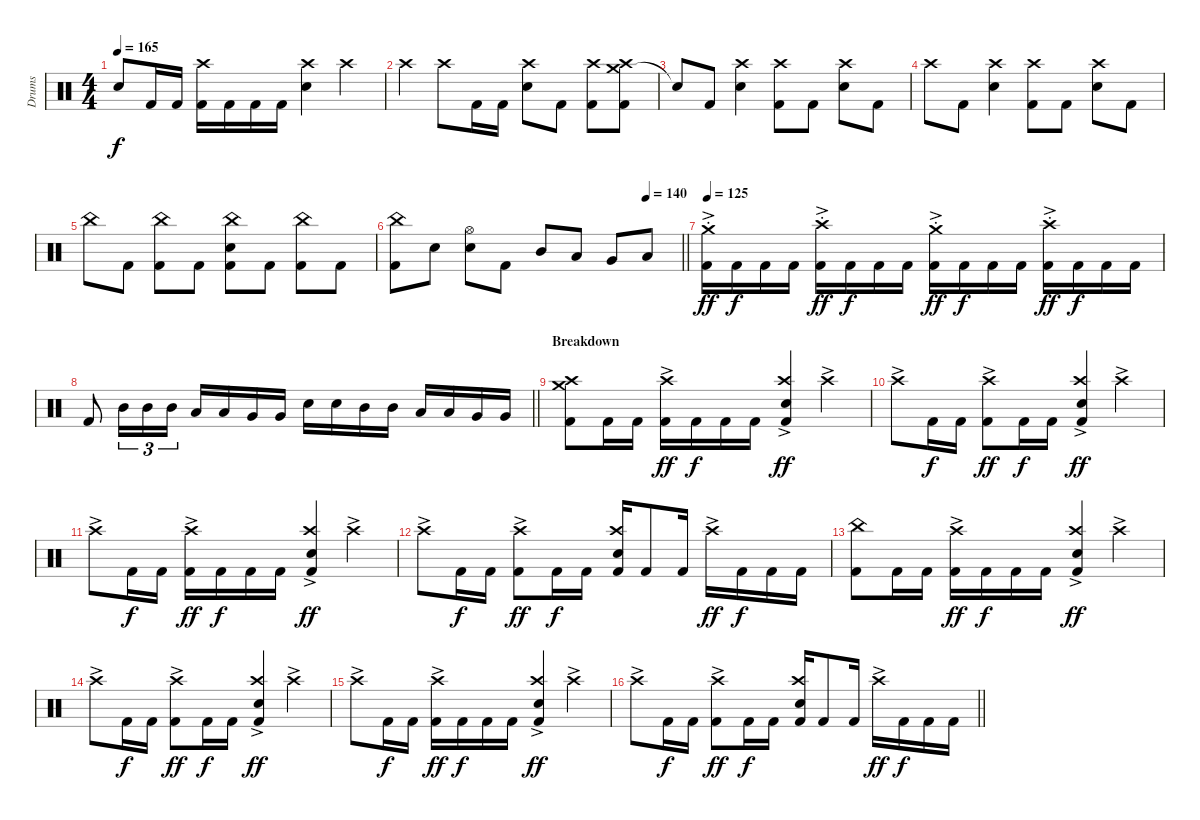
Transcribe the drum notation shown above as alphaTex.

\track ("Drums" "Drums") {instrument percussion}
\staff {score}
\articulation defaults
\ts (4 4)
\tempo 165
\clef neutral
\ks c "Snare (hit)"{t}.8{dy f} "Kick (hit) 2".16 "Kick (hit) 2".16
("Crash high (hit)" "Kick (hit) 2").16 "Kick (hit) 2".16 "Kick (hit) 2".16 "Kick (hit) 2".16 ("Crash high (hit)" "Electric Snare (hit)").4 "Crash high (hit)".4 |
"Crash high (hit)".4 "Crash high (hit)".8 "Kick (hit) 2".16 "Kick (hit) 2".16 ("Crash high (hit)" "Electric Snare (hit)").8 "Kick (hit) 2".8 ("Crash high (hit)" "Kick (hit) 2").8 ("Crash medium (hit)" "Crash high (hit)" "Kick (hit) 2").8 |
"Snare (hit)"{t}.8 "Kick (hit) 2".8 ("Crash high (hit)" "Electric Snare (hit)").4 ("Crash high (hit)" "Kick (hit) 2").8 "Kick (hit) 2".8 ("Crash high (hit)" "Electric Snare (hit)").8 "Kick (hit) 2".8 |
"Crash high (hit)".8 "Kick (hit) 2".8 ("Crash high (hit)" "Electric Snare (hit)").4 ("Crash high (hit)" "Kick (hit) 2").8 "Kick (hit) 2".8 ("Crash high (hit)" "Electric Snare (hit)").8 "Kick (hit) 2".8 |
"China (hit)".8 "Kick (hit) 2".8 ("China (hit)" "Kick (hit) 2").8 "Kick (hit) 2".8 ("China (hit)" "Electric Snare (hit)" "Kick (hit) 2").8 "Kick (hit) 2".8 ("China (hit)" "Kick (hit) 2").8 "Kick (hit) 2".8 |
\tempo (140 0.875)
\barLineRight lightlight
("China (hit)" "Kick (hit) 2").8 "Electric Snare (hit)".8 ("Hi-Hat (open)" "Electric Snare (hit)").8 "Kick (hit) 2".8 "Mid Tom (hit)".8 "Low Tom (hit)".8 "Very Low Tom (hit)".8 "Low Floor Tom (hit)".8 |
\section ("" "")
\tempo 125
("Crash medium (hit)"{ac st} "Kick (hit) 2").16{dy ff} "Kick (hit) 2".16{dy f} "Kick (hit) 2".16 "Kick (hit) 2".16 ("Crash high (hit)"{ac st} "Kick (hit) 2").16{dy ff} "Kick (hit) 2".16{dy f} "Kick (hit) 2".16 "Kick (hit) 2".16 ("Crash medium (hit)"{ac st} "Kick (hit) 2").16{dy ff} "Kick (hit) 2".16{dy f} "Kick (hit) 2".16 "Kick (hit) 2".16 ("Crash high (hit)"{ac st} "Kick (hit) 2").16{dy ff} "Kick (hit) 2".16{dy f} "Kick (hit) 2".16 "Kick (hit) 2".16 |
\barLineRight lightlight "Kick (hit) 2".8 "Mid Tom (hit)".16{tu (3 2)} "Mid Tom (hit)".16{tu (3 2)} "Mid Tom (hit)".16{tu (3 2)} "Low Tom (hit)".16 "Low Tom (hit)".16 "Very Low Tom (hit)".16 "Very Low Tom (hit)".16 "Electric Snare (hit)".16 "Electric Snare (hit)".16 "Mid Tom (hit)".16 "Mid Tom (hit)".16 "Low Tom (hit)".16 "Low Tom (hit)".16 "Very Low Tom (hit)".16 "Very Low Tom (hit)".16
|
\section ("" "Breakdown")
("Crash medium (hit)" "Crash high (hit)" "Kick (hit) 2").8 "Kick (hit) 2".16 "Kick (hit) 2".16 ("Crash high (hit)"{ac} "Kick (hit) 2").16{dy ff} "Kick (hit) 2".16{dy f} "Kick (hit) 2".16 "Kick (hit) 2".16 ("Crash high (hit)"{ac} "Electric Snare (hit)" "Kick (hit) 2").4{dy ff} "Crash high (hit)"{ac}.4 |
"Crash high (hit)"{ac}.8 "Kick (hit) 2".16{dy f} "Kick (hit) 2".16 ("Crash high (hit)"{ac} "Kick (hit) 2").8{dy ff} "Kick (hit) 2".16{dy f} "Kick (hit) 2".16 ("Crash high (hit)"{ac} "Electric Snare (hit)" "Kick (hit) 2").4{dy ff} "Crash high (hit)"{ac}.4 |
"Crash high (hit)"{ac}.8 "Kick (hit) 2".16{dy f} "Kick (hit) 2".16 ("Crash high (hit)"{ac} "Kick (hit) 2").16{dy ff} "Kick (hit) 2".16{dy f} "Kick (hit) 2".16 "Kick (hit) 2".16 ("Crash high (hit)"{ac} "Electric Snare (hit)" "Kick (hit) 2").4{dy ff} "Crash high (hit)"{ac}.4 |
"Crash high (hit)"{ac}.8 "Kick (hit) 2".16{dy f} "Kick (hit) 2".16 ("Crash high (hit)"{ac} "Kick (hit) 2").8{dy ff} "Kick (hit) 2".16{dy f} "Kick (hit) 2".16 ("Crash high (hit)" "Electric Snare (hit)" "Kick (hit) 2").16 "Kick (hit) 2".8 "Kick (hit) 2".16 "Crash high (hit)"{ac}.16{dy ff} "Kick (hit) 2".16{dy f} "Kick (hit) 2".16 "Kick (hit) 2".16 |
("China (hit)" "Kick (hit) 2").8 "Kick (hit) 2".16 "Kick (hit) 2".16 ("Crash high (hit)"{ac} "Kick (hit) 2").16{dy ff} "Kick (hit) 2".16{dy f} "Kick (hit) 2".16 "Kick (hit) 2".16 ("Crash high (hit)"{ac} "Electric Snare (hit)" "Kick (hit) 2").4{dy ff} "Crash high (hit)"{ac}.4 |
"Crash high (hit)"{ac}.8 "Kick (hit) 2".16{dy f} "Kick (hit) 2".16 ("Crash high (hit)"{ac} "Kick (hit) 2").8{dy ff} "Kick (hit) 2".16{dy f} "Kick (hit) 2".16 ("Crash high (hit)"{ac} "Electric Snare (hit)" "Kick (hit) 2").4{dy ff} "Crash high (hit)"{ac}.4 |
"Crash high (hit)"{ac}.8 "Kick (hit) 2".16{dy f} "Kick (hit) 2".16 ("Crash high (hit)"{ac} "Kick (hit) 2").16{dy ff} "Kick (hit) 2".16{dy f} "Kick (hit) 2".16 "Kick (hit) 2".16 ("Crash high (hit)"{ac} "Electric Snare (hit)" "Kick (hit) 2").4{dy ff} "Crash high (hit)"{ac}.4 |
\barLineRight lightlight "Crash high (hit)"{ac}.8 "Kick (hit) 2".16{dy f} "Kick (hit) 2".16
("Crash high (hit)"{ac} "Kick (hit) 2").8{dy ff} "Kick (hit) 2".16{dy f} "Kick (hit) 2".16 ("Crash high (hit)" "Electric Snare (hit)" "Kick (hit) 2").16 "Kick (hit) 2".8 "Kick (hit) 2".16 "Crash high (hit)"{ac}.16{dy ff} "Kick (hit) 2".16{dy f} "Kick (hit) 2".16 "Kick (hit) 2".16
